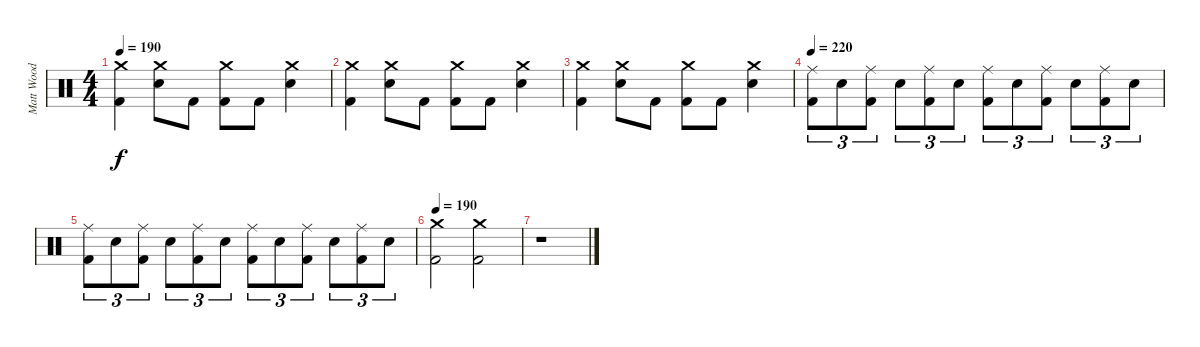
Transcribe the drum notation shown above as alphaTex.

\track ("Matt Wood" "Matt Wood") {instrument percussion}
\staff {score}
\articulation defaults
\ts (4 4)
\tempo 190
\clef neutral
\ks c
("Crash medium (hit)" "Kick (hit) 2").4{dy f} ("Crash medium (hit)" "Snare (hit) 2").8 "Kick (hit) 2".8 ("Crash medium (hit)" "Kick (hit) 2").8 "Kick (hit) 2".8 ("Crash medium (hit)" "Snare (hit) 2").4 |
("Crash medium (hit)" "Kick (hit) 2").4 ("Crash medium (hit)" "Snare (hit) 2").8 "Kick (hit) 2".8 ("Crash medium (hit)" "Kick (hit) 2").8 "Kick (hit) 2".8 ("Crash medium (hit)" "Snare (hit) 2").4 |
("Crash medium (hit)" "Kick (hit) 2").4 ("Crash medium (hit)" "Snare (hit) 2").8 "Kick (hit) 2".8 ("Crash medium (hit)" "Kick (hit) 2").8 "Kick (hit) 2".8 ("Crash medium (hit)" "Snare (hit) 2").4 |
\tempo 220
("Ride (middle)" "Kick (hit) 2").8{tu (3 2)} "Snare (hit) 2".8{tu (3 2)} ("Ride (middle)" "Kick (hit) 2").8{tu (3 2)} "Snare (hit) 2".8{tu (3 2)} ("Ride (middle)" "Kick (hit) 2").8{tu (3 2)} "Snare (hit) 2".8{tu (3 2)} ("Ride (middle)" "Kick (hit) 2").8{tu (3 2)} "Snare (hit) 2".8{tu (3 2)} ("Ride (middle)" "Kick (hit) 2").8{tu (3 2)} "Snare (hit) 2".8{tu (3 2)} ("Ride (middle)" "Kick (hit) 2").8{tu (3 2)} "Snare (hit) 2".8{tu (3 2)} |
("Ride (middle)" "Kick (hit) 2").8{tu (3 2)} "Snare (hit) 2".8{tu (3 2)} ("Ride (middle)" "Kick (hit) 2").8{tu (3 2)} "Snare (hit) 2".8{tu (3 2)} ("Ride (middle)" "Kick (hit) 2").8{tu (3 2)} "Snare (hit) 2".8{tu (3 2)} ("Ride (middle)" "Kick (hit) 2").8{tu (3 2)} "Snare (hit) 2".8{tu (3 2)} ("Ride (middle)" "Kick (hit) 2").8{tu (3 2)} "Snare (hit) 2".8{tu (3 2)} ("Ride (middle)" "Kick (hit) 2").8{tu (3 2)} "Snare (hit) 2".8{tu (3 2)} |
\tempo 190
("Crash medium (hit)" "Kick (hit) 2").2 ("Crash medium (hit)" "Kick (hit) 2").2 |
r.1
